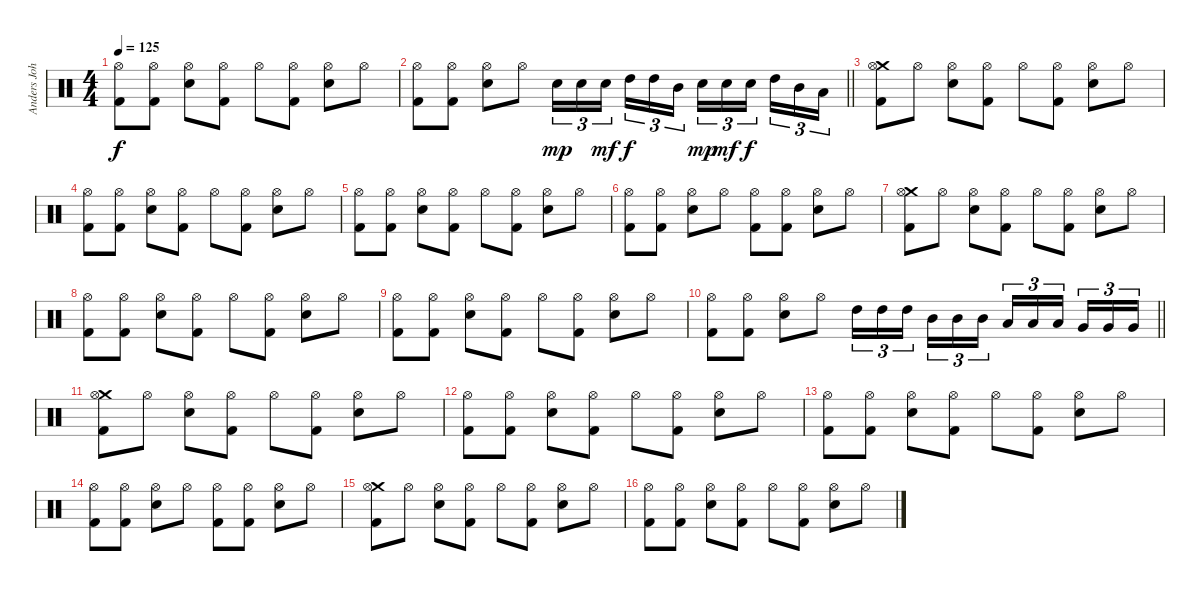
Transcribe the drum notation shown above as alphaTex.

\track ("Anders Johansson" "Anders Joh") {instrument percussion}
\staff {score}
\articulation defaults
\ts (4 4)
\tempo 125
\clef neutral
\ks c
("Hi-Hat (open)" "Kick (hit) 2").8{dy f} ("Hi-Hat (open)" "Kick (hit) 2").8 ("Hi-Hat (open)" "Snare (hit) 2").8 ("Hi-Hat (open)" "Kick (hit) 2").8 "Hi-Hat (open)".8 ("Hi-Hat (open)" "Kick (hit) 2").8 ("Hi-Hat (open)" "Snare (hit) 2").8 "Hi-Hat (open)".8 |
\barLineRight lightlight
("Hi-Hat (open)" "Kick (hit) 2").8 ("Hi-Hat (open)" "Kick (hit) 2").8 ("Hi-Hat (open)" "Snare (hit) 2").8 "Hi-Hat (open)".8 "Electric Snare (hit)".16{tu (3 2) dy mp} "Electric Snare (hit)".16{tu (3 2)} "Electric Snare (hit)".16{tu (3 2) dy mf beam splitsecondary} "High Tom (hit)".16{tu (3 2) dy f} "High Tom (hit)".16{tu (3 2)} "Mid Tom (hit)".16{tu (3 2)} "Electric Snare (hit)".16{tu (3 2) dy mp} "Electric Snare (hit)".16{tu (3 2) dy mf} "Electric Snare (hit)".16{tu (3 2) dy f beam splitsecondary} "High Tom (hit)".16{tu (3 2)} "Mid Tom (hit)".16{tu (3 2)} "Low Tom (hit)".16{tu (3 2)} |
("Crash medium (hit)" "Hi-Hat (open)" "Kick (hit) 2").8 "Hi-Hat (open)".8 ("Hi-Hat (open)" "Snare (hit) 2").8 ("Hi-Hat (open)" "Kick (hit) 2").8 "Hi-Hat (open)".8 ("Hi-Hat (open)" "Kick (hit) 2").8 ("Hi-Hat (open)" "Snare (hit) 2").8 "Hi-Hat (open)".8 |
("Hi-Hat (open)" "Kick (hit) 2").8 ("Hi-Hat (open)" "Kick (hit) 2").8 ("Hi-Hat (open)" "Snare (hit) 2").8 ("Hi-Hat (open)" "Kick (hit) 2").8 "Hi-Hat (open)".8 ("Hi-Hat (open)" "Kick (hit) 2").8 ("Hi-Hat (open)" "Snare (hit) 2").8 "Hi-Hat (open)".8 |
("Hi-Hat (open)" "Kick (hit) 2").8 ("Hi-Hat (open)" "Kick (hit) 2").8 ("Hi-Hat (open)" "Snare (hit) 2").8 ("Hi-Hat (open)" "Kick (hit) 2").8 "Hi-Hat (open)".8 ("Hi-Hat (open)" "Kick (hit) 2").8 ("Hi-Hat (open)" "Snare (hit) 2").8 "Hi-Hat (open)".8 |
("Hi-Hat (open)" "Kick (hit) 2").8 ("Hi-Hat (open)" "Kick (hit) 2").8 ("Hi-Hat (open)" "Snare (hit) 2").8 "Hi-Hat (open)".8 ("Hi-Hat (open)" "Kick (hit) 2").8 ("Hi-Hat (open)" "Kick (hit) 2").8 ("Hi-Hat (open)" "Snare (hit) 2").8 "Hi-Hat (open)".8 |
("Crash medium (hit)" "Hi-Hat (open)" "Kick (hit) 2").8 "Hi-Hat (open)".8 ("Hi-Hat (open)" "Snare (hit) 2").8 ("Hi-Hat (open)" "Kick (hit) 2").8 "Hi-Hat (open)".8 ("Hi-Hat (open)" "Kick (hit) 2").8 ("Hi-Hat (open)" "Snare (hit) 2").8 "Hi-Hat (open)".8 |
("Hi-Hat (open)" "Kick (hit) 2").8 ("Hi-Hat (open)" "Kick (hit) 2").8 ("Hi-Hat (open)" "Snare (hit) 2").8 ("Hi-Hat (open)" "Kick (hit) 2").8 "Hi-Hat (open)".8 ("Hi-Hat (open)" "Kick (hit) 2").8 ("Hi-Hat (open)" "Snare (hit) 2").8 "Hi-Hat (open)".8 |
("Hi-Hat (open)" "Kick (hit) 2").8 ("Hi-Hat (open)" "Kick (hit) 2").8 ("Hi-Hat (open)" "Snare (hit) 2").8 ("Hi-Hat (open)" "Kick (hit) 2").8 "Hi-Hat (open)".8 ("Hi-Hat (open)" "Kick (hit) 2").8 ("Hi-Hat (open)" "Snare (hit) 2").8 "Hi-Hat (open)".8 |
\barLineRight lightlight
("Hi-Hat (open)" "Kick (hit) 2").8 ("Hi-Hat (open)" "Kick (hit) 2").8 ("Hi-Hat (open)" "Snare (hit) 2").8 "Hi-Hat (open)".8 "High Tom (hit)".16{tu (3 2)} "High Tom (hit)".16{tu (3 2)} "High Tom (hit)".16{tu (3 2) beam splitsecondary} "Mid Tom (hit)".16{tu (3 2)} "Mid Tom (hit)".16{tu (3 2)} "Mid Tom (hit)".16{tu (3 2)} "Low Tom (hit)".16{tu (3 2)} "Low Tom (hit)".16{tu (3 2)} "Low Tom (hit)".16{tu (3 2) beam splitsecondary} "Very Low Tom (hit)".16{tu (3 2)} "Very Low Tom (hit)".16{tu (3 2)} "Very Low Tom (hit)".16{tu (3 2)} |
("Crash medium (hit)" "Hi-Hat (open)" "Kick (hit) 2").8 "Hi-Hat (open)".8 ("Hi-Hat (open)" "Snare (hit) 2").8 ("Hi-Hat (open)" "Kick (hit) 2").8 "Hi-Hat (open)".8 ("Hi-Hat (open)" "Kick (hit) 2").8 ("Hi-Hat (open)" "Snare (hit) 2").8 "Hi-Hat (open)".8 |
("Hi-Hat (open)" "Kick (hit) 2").8 ("Hi-Hat (open)" "Kick (hit) 2").8 ("Hi-Hat (open)" "Snare (hit) 2").8 ("Hi-Hat (open)" "Kick (hit) 2").8 "Hi-Hat (open)".8 ("Hi-Hat (open)" "Kick (hit) 2").8 ("Hi-Hat (open)" "Snare (hit) 2").8 "Hi-Hat (open)".8 |
("Hi-Hat (open)" "Kick (hit) 2").8 ("Hi-Hat (open)" "Kick (hit) 2").8 ("Hi-Hat (open)" "Snare (hit) 2").8 ("Hi-Hat (open)" "Kick (hit) 2").8 "Hi-Hat (open)".8 ("Hi-Hat (open)" "Kick (hit) 2").8 ("Hi-Hat (open)" "Snare (hit) 2").8 "Hi-Hat (open)".8 |
("Hi-Hat (open)" "Kick (hit) 2").8 ("Hi-Hat (open)" "Kick (hit) 2").8 ("Hi-Hat (open)" "Snare (hit) 2").8 "Hi-Hat (open)".8 ("Hi-Hat (open)" "Kick (hit) 2").8 ("Hi-Hat (open)" "Kick (hit) 2").8 ("Hi-Hat (open)" "Snare (hit) 2").8 "Hi-Hat (open)".8 |
("Crash medium (hit)" "Hi-Hat (open)" "Kick (hit) 2").8 "Hi-Hat (open)".8 ("Hi-Hat (open)" "Snare (hit) 2").8 ("Hi-Hat (open)" "Kick (hit) 2").8 "Hi-Hat (open)".8 ("Hi-Hat (open)" "Kick (hit) 2").8 ("Hi-Hat (open)" "Snare (hit) 2").8 "Hi-Hat (open)".8 |
("Hi-Hat (open)" "Kick (hit) 2").8 ("Hi-Hat (open)" "Kick (hit) 2").8 ("Hi-Hat (open)" "Snare (hit) 2").8 ("Hi-Hat (open)" "Kick (hit) 2").8 "Hi-Hat (open)".8 ("Hi-Hat (open)" "Kick (hit) 2").8 ("Hi-Hat (open)" "Snare (hit) 2").8 "Hi-Hat (open)".8
